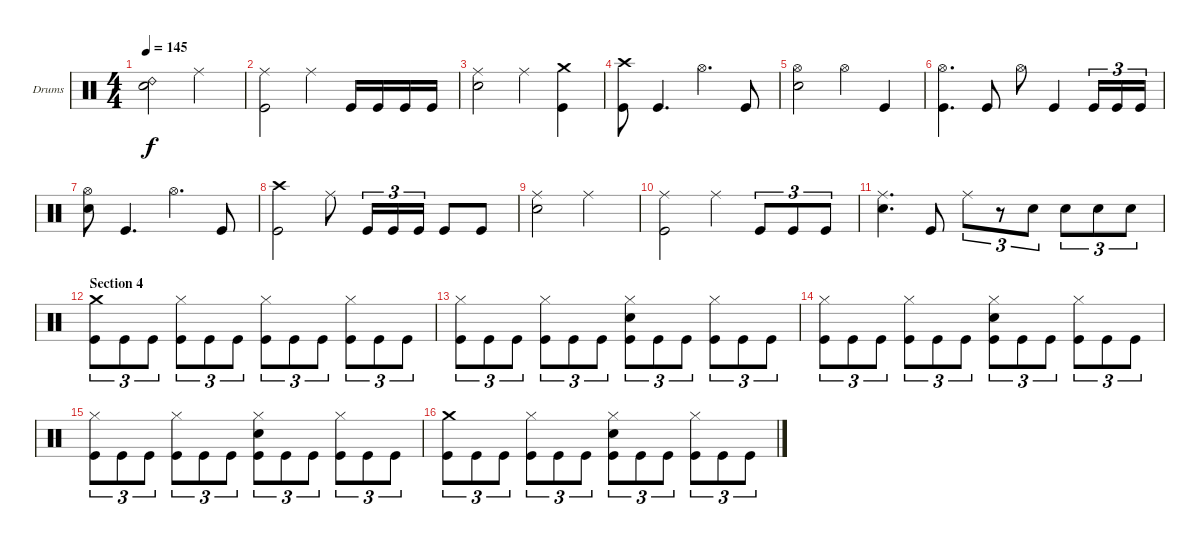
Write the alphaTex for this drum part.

\defaultSystemsLayout 4
\bracketExtendMode groupsimilarinstruments
\firstSystemTrackNameOrientation horizontal
\otherSystemsTrackNameOrientation horizontal
\track ("Drums" "Drums") {instrument percussion}
\staff {score}
\articulation defaults
\ts (4 4)
\tempo 145
\clef neutral
\ks c
("Snare (hit) 2" "Ride (bell) 2").2{dy f} "Ride (middle)".2 |
("Kick (hit)" "Ride (middle)").2 "Ride (middle)".4 "Kick (hit)".16 "Kick (hit)".16 "Kick (hit)".16 "Kick (hit)".16 |
("Snare (hit) 2" "Ride (middle)").2 "Ride (middle)".4 ("Kick (hit)" "Crash medium (hit)").4 |
("Kick (hit)" "Crash high (hit)").8 "Kick (hit)".4{d} "Hi-Hat (open)".4{d} "Kick (hit)".8 |
("Snare (hit) 2" "Hi-Hat (open)").2 "Hi-Hat (open)".4 "Kick (hit)".4 |
("Kick (hit)" "Hi-Hat (open)").4{d} "Kick (hit)".8 "Hi-Hat (open)".8 "Kick (hit)".4 "Kick (hit)".16{tu (3 2)} "Kick (hit)".16{tu (3 2)} "Kick (hit)".16{tu (3 2)} |
("Snare (hit) 2" "Hi-Hat (open)").8 "Kick (hit)".4{d} "Hi-Hat (open)".4{d} "Kick (hit)".8 |
("Kick (hit)" "Crash high (hit)").2 "Ride (middle)".8 "Kick (hit)".16{tu (3 2)} "Kick (hit)".16{tu (3 2)} "Kick (hit)".16{tu (3 2)} "Kick (hit)".8 "Kick (hit)".8 |
("Snare (hit) 2" "Ride (middle)").2 "Ride (middle)".2 |
("Kick (hit)" "Ride (middle)").2 "Ride (middle)".4 "Kick (hit)".8{tu (3 2)} "Kick (hit)".8{tu (3 2)} "Kick (hit)".8{tu (3 2)} |
("Snare (hit) 2" "Ride (middle)").4{d} "Kick (hit)".8 "Ride (middle)".8{tu (3 2)} r.8{tu (3 2)} "Snare (hit) 2".8{tu (3 2)} "Snare (hit) 2".8{tu (3 2)} "Snare (hit) 2".8{tu (3 2)} "Snare (hit) 2".8{tu (3 2)} |
\section ("" "Section 4")
("Kick (hit)" "Crash medium (hit)").8{tu (3 2)} "Kick (hit)".8{tu (3 2)} "Kick (hit)".8{tu (3 2)} ("Kick (hit)" "Hi-Hat (closed)").8{tu (3 2)} "Kick (hit)".8{tu (3 2)} "Kick (hit)".8{tu (3 2)} ("Kick (hit)" "Hi-Hat (closed)").8{tu (3 2)} "Kick (hit)".8{tu (3 2)} "Kick (hit)".8{tu (3 2)} ("Kick (hit)" "Hi-Hat (closed)").8{tu (3 2)} "Kick (hit)".8{tu (3 2)} "Kick (hit)".8{tu (3 2)} |
("Kick (hit)" "Hi-Hat (closed)").8{tu (3 2)} "Kick (hit)".8{tu (3 2)} "Kick (hit)".8{tu (3 2)} ("Kick (hit)" "Hi-Hat (closed)").8{tu (3 2)} "Kick (hit)".8{tu (3 2)} "Kick (hit)".8{tu (3 2)} ("Snare (hit) 2" "Kick (hit)" "Hi-Hat (closed)").8{tu (3 2)} "Kick (hit)".8{tu (3 2)} "Kick (hit)".8{tu (3 2)} ("Kick (hit)" "Hi-Hat (closed)").8{tu (3 2)} "Kick (hit)".8{tu (3 2)} "Kick (hit)".8{tu (3 2)} |
("Kick (hit)" "Hi-Hat (closed)").8{tu (3 2)} "Kick (hit)".8{tu (3 2)} "Kick (hit)".8{tu (3 2)} ("Kick (hit)" "Hi-Hat (closed)").8{tu (3 2)} "Kick (hit)".8{tu (3 2)} "Kick (hit)".8{tu (3 2)} ("Snare (hit) 2" "Kick (hit)" "Hi-Hat (closed)").8{tu (3 2)} "Kick (hit)".8{tu (3 2)} "Kick (hit)".8{tu (3 2)} ("Kick (hit)" "Hi-Hat (closed)").8{tu (3 2)} "Kick (hit)".8{tu (3 2)} "Kick (hit)".8{tu (3 2)} |
("Kick (hit)" "Hi-Hat (closed)").8{tu (3 2)} "Kick (hit)".8{tu (3 2)} "Kick (hit)".8{tu (3 2)} ("Kick (hit)" "Hi-Hat (closed)").8{tu (3 2)} "Kick (hit)".8{tu (3 2)} "Kick (hit)".8{tu (3 2)} ("Snare (hit) 2" "Kick (hit)" "Hi-Hat (closed)").8{tu (3 2)} "Kick (hit)".8{tu (3 2)} "Kick (hit)".8{tu (3 2)} ("Kick (hit)" "Hi-Hat (closed)").8{tu (3 2)} "Kick (hit)".8{tu (3 2)} "Kick (hit)".8{tu (3 2)} |
("Kick (hit)" "Crash medium (hit)").8{tu (3 2)} "Kick (hit)".8{tu (3 2)} "Kick (hit)".8{tu (3 2)} ("Kick (hit)" "Hi-Hat (closed)").8{tu (3 2)} "Kick (hit)".8{tu (3 2)} "Kick (hit)".8{tu (3 2)} ("Snare (hit) 2" "Kick (hit)" "Hi-Hat (closed)").8{tu (3 2)} "Kick (hit)".8{tu (3 2)} "Kick (hit)".8{tu (3 2)} ("Kick (hit)" "Hi-Hat (closed)").8{tu (3 2)} "Kick (hit)".8{tu (3 2)} "Kick (hit)".8{tu (3 2)}
